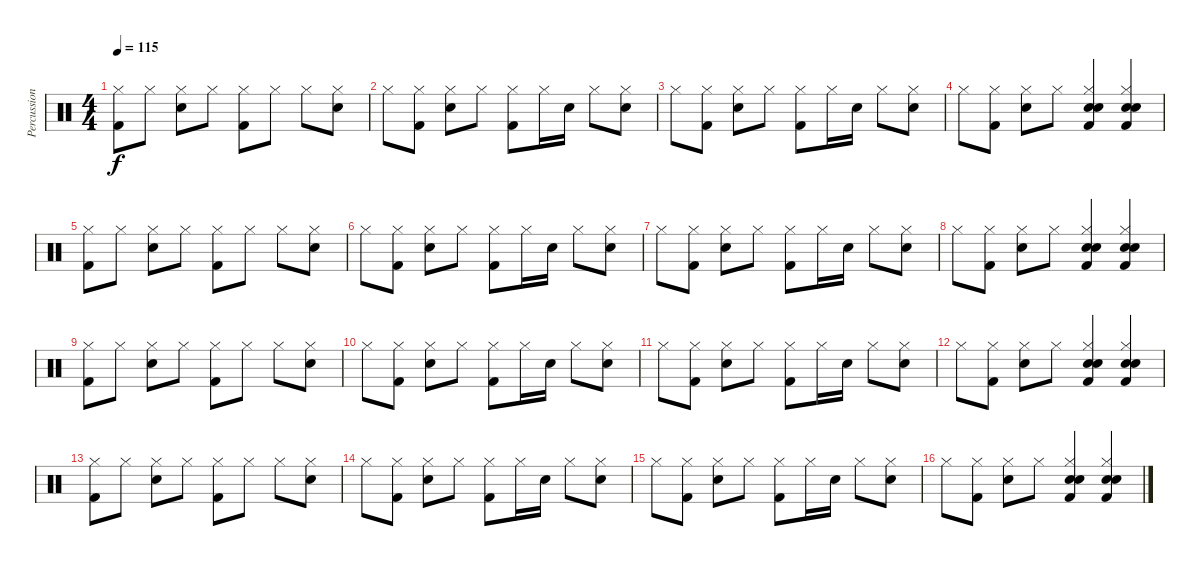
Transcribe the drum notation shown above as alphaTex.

\track ("Percussion" "Percussion") {instrument percussion}
\staff {score}
\articulation defaults
\ts (4 4)
\tempo 115
\clef neutral
\ks c
("Kick (hit) 2" "Hi-Hat (closed)").8{dy f} "Hi-Hat (closed)".8 ("Electric Snare (hit)" "Hi-Hat (closed)").8 "Hi-Hat (closed)".8 ("Kick (hit) 2" "Hi-Hat (closed)").8 "Hi-Hat (closed)".8 "Hi-Hat (closed)".8 ("Electric Snare (hit)" "Hi-Hat (closed)").8 |
"Hi-Hat (closed)".8 ("Kick (hit) 2" "Hi-Hat (closed)").8 ("Electric Snare (hit)" "Hi-Hat (closed)").8 "Hi-Hat (closed)".8 ("Kick (hit) 2" "Hi-Hat (closed)").8 "Hi-Hat (closed)".16 "Electric Snare (hit)".16 "Hi-Hat (closed)".8 ("Hi-Hat (closed)" "Electric Snare (hit)").8 |
"Hi-Hat (closed)".8 ("Kick (hit) 2" "Hi-Hat (closed)").8 ("Hi-Hat (closed)" "Electric Snare (hit)").8 "Hi-Hat (closed)".8 ("Kick (hit) 2" "Hi-Hat (closed)").8 "Hi-Hat (closed)".16 "Electric Snare (hit)".16 "Hi-Hat (closed)".8 ("Hi-Hat (closed)" "Electric Snare (hit)").8 |
"Hi-Hat (closed)".8 ("Kick (hit) 2" "Hi-Hat (closed)").8 ("Electric Snare (hit)" "Hi-Hat (closed)").8 "Hi-Hat (closed)".8 ("Hi-Hat (closed)" "Kick (hit) 2" "Electric Snare (hit)" "Electric Snare (hit)").4 ("Hi-Hat (closed)" "Kick (hit) 2" "Electric Snare (hit)" "Electric Snare (hit)").4 |
("Kick (hit) 2" "Hi-Hat (closed)").8 "Hi-Hat (closed)".8 ("Electric Snare (hit)" "Hi-Hat (closed)").8 "Hi-Hat (closed)".8 ("Kick (hit) 2" "Hi-Hat (closed)").8 "Hi-Hat (closed)".8 "Hi-Hat (closed)".8 ("Electric Snare (hit)" "Hi-Hat (closed)").8 |
"Hi-Hat (closed)".8 ("Kick (hit) 2" "Hi-Hat (closed)").8 ("Electric Snare (hit)" "Hi-Hat (closed)").8 "Hi-Hat (closed)".8 ("Kick (hit) 2" "Hi-Hat (closed)").8 "Hi-Hat (closed)".16 "Electric Snare (hit)".16 "Hi-Hat (closed)".8 ("Hi-Hat (closed)" "Electric Snare (hit)").8 |
"Hi-Hat (closed)".8 ("Kick (hit) 2" "Hi-Hat (closed)").8 ("Hi-Hat (closed)" "Electric Snare (hit)").8 "Hi-Hat (closed)".8 ("Kick (hit) 2" "Hi-Hat (closed)").8 "Hi-Hat (closed)".16 "Electric Snare (hit)".16 "Hi-Hat (closed)".8 ("Hi-Hat (closed)" "Electric Snare (hit)").8 |
"Hi-Hat (closed)".8 ("Kick (hit) 2" "Hi-Hat (closed)").8 ("Electric Snare (hit)" "Hi-Hat (closed)").8 "Hi-Hat (closed)".8 ("Hi-Hat (closed)" "Kick (hit) 2" "Electric Snare (hit)" "Electric Snare (hit)").4 ("Hi-Hat (closed)" "Kick (hit) 2" "Electric Snare (hit)" "Electric Snare (hit)").4 |
("Kick (hit) 2" "Hi-Hat (closed)").8 "Hi-Hat (closed)".8 ("Electric Snare (hit)" "Hi-Hat (closed)").8 "Hi-Hat (closed)".8 ("Kick (hit) 2" "Hi-Hat (closed)").8 "Hi-Hat (closed)".8 "Hi-Hat (closed)".8 ("Electric Snare (hit)" "Hi-Hat (closed)").8 |
"Hi-Hat (closed)".8 ("Kick (hit) 2" "Hi-Hat (closed)").8 ("Electric Snare (hit)" "Hi-Hat (closed)").8 "Hi-Hat (closed)".8 ("Kick (hit) 2" "Hi-Hat (closed)").8 "Hi-Hat (closed)".16 "Electric Snare (hit)".16 "Hi-Hat (closed)".8 ("Hi-Hat (closed)" "Electric Snare (hit)").8 |
"Hi-Hat (closed)".8 ("Kick (hit) 2" "Hi-Hat (closed)").8 ("Hi-Hat (closed)" "Electric Snare (hit)").8 "Hi-Hat (closed)".8 ("Kick (hit) 2" "Hi-Hat (closed)").8 "Hi-Hat (closed)".16 "Electric Snare (hit)".16 "Hi-Hat (closed)".8 ("Hi-Hat (closed)" "Electric Snare (hit)").8 |
"Hi-Hat (closed)".8 ("Kick (hit) 2" "Hi-Hat (closed)").8 ("Electric Snare (hit)" "Hi-Hat (closed)").8 "Hi-Hat (closed)".8 ("Hi-Hat (closed)" "Kick (hit) 2" "Electric Snare (hit)" "Electric Snare (hit)").4 ("Hi-Hat (closed)" "Kick (hit) 2" "Electric Snare (hit)" "Electric Snare (hit)").4 |
("Kick (hit) 2" "Hi-Hat (closed)").8 "Hi-Hat (closed)".8 ("Electric Snare (hit)" "Hi-Hat (closed)").8 "Hi-Hat (closed)".8 ("Kick (hit) 2" "Hi-Hat (closed)").8 "Hi-Hat (closed)".8 "Hi-Hat (closed)".8 ("Electric Snare (hit)" "Hi-Hat (closed)").8 |
"Hi-Hat (closed)".8 ("Kick (hit) 2" "Hi-Hat (closed)").8 ("Electric Snare (hit)" "Hi-Hat (closed)").8 "Hi-Hat (closed)".8 ("Kick (hit) 2" "Hi-Hat (closed)").8 "Hi-Hat (closed)".16 "Electric Snare (hit)".16 "Hi-Hat (closed)".8 ("Hi-Hat (closed)" "Electric Snare (hit)").8 |
"Hi-Hat (closed)".8 ("Kick (hit) 2" "Hi-Hat (closed)").8 ("Hi-Hat (closed)" "Electric Snare (hit)").8 "Hi-Hat (closed)".8 ("Kick (hit) 2" "Hi-Hat (closed)").8 "Hi-Hat (closed)".16 "Electric Snare (hit)".16 "Hi-Hat (closed)".8 ("Hi-Hat (closed)" "Electric Snare (hit)").8 |
"Hi-Hat (closed)".8 ("Kick (hit) 2" "Hi-Hat (closed)").8 ("Electric Snare (hit)" "Hi-Hat (closed)").8 "Hi-Hat (closed)".8 ("Hi-Hat (closed)" "Kick (hit) 2" "Electric Snare (hit)" "Electric Snare (hit)").4 ("Hi-Hat (closed)" "Kick (hit) 2" "Electric Snare (hit)" "Electric Snare (hit)").4
